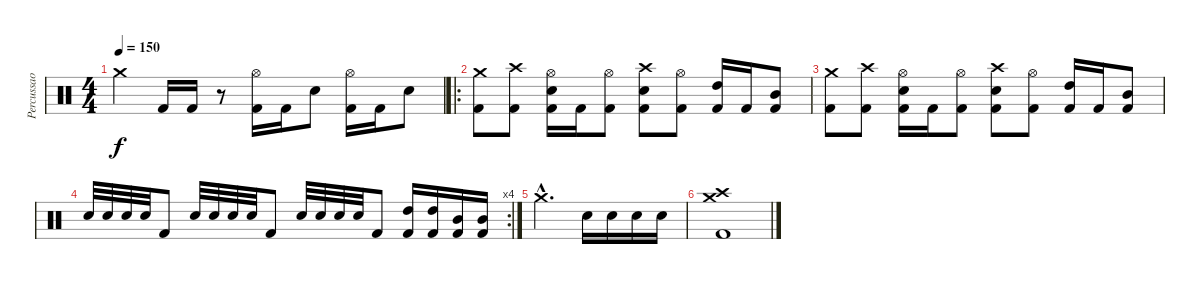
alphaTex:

\track ("Percussao" "Percussao") {instrument percussion}
\staff {score}
\articulation defaults
\ts (4 4)
\tempo 150
\clef neutral
\ks c "Crash medium (hit)".4{dy f} "Kick (hit) 2".16 "Kick (hit) 2".16
r.8 ("Hi-Hat (open)" "Kick (hit) 2").16 "Kick (hit) 2".16 "Electric Snare (hit)".8 ("Hi-Hat (open)" "Kick (hit) 2").16 "Kick (hit) 2".16 "Electric Snare (hit)".8 |
\ro
("Crash medium (hit)" "Kick (hit) 2").8 ("Crash high (hit)" "Kick (hit) 2").8 ("Hi-Hat (open)" "Electric Snare (hit)" "Kick (hit) 2").16 "Kick (hit) 2".16 ("Hi-Hat (open)" "Kick (hit) 2").8 ("Crash high (hit)" "Electric Snare (hit)" "Kick (hit) 2").8 ("Hi-Hat (open)" "Kick (hit) 2").8 ("High Tom (hit)" "Kick (hit) 2").16 "Kick (hit) 2".16 ("Mid Tom (hit)" "Kick (hit) 2").8 |
("Crash medium (hit)" "Kick (hit) 2").8 ("Crash high (hit)" "Kick (hit) 2").8 ("Hi-Hat (open)" "Electric Snare (hit)" "Kick (hit) 2").16 "Kick (hit) 2".16 ("Hi-Hat (open)" "Kick (hit) 2").8 ("Crash high (hit)" "Electric Snare (hit)" "Kick (hit) 2").8 ("Hi-Hat (open)" "Kick (hit) 2").8 ("High Tom (hit)" "Kick (hit) 2").16 "Kick (hit) 2".16 ("Mid Tom (hit)" "Kick (hit) 2").8 |
\rc 4 "Electric Snare (hit)".32 "Electric Snare (hit)".32 "Electric Snare (hit)".32 "Electric Snare (hit)".32 "Kick (hit) 2".8 "Electric Snare (hit)".32 "Electric Snare (hit)".32 "Electric Snare (hit)".32 "Electric Snare (hit)".32 "Kick (hit) 2".8 "Electric Snare (hit)".32 "Electric Snare (hit)".32 "Electric Snare (hit)".32 "Electric Snare (hit)".32 "Kick (hit) 2".8
("High Tom (hit)" "Kick (hit) 2").16 ("High Tom (hit)" "Kick (hit) 2").16 ("Mid Tom (hit)" "Kick (hit) 2").16 ("Mid Tom (hit)" "Kick (hit) 2").16 |
"Crash medium (hit)"{hac}.2{d} "Electric Snare (hit)".16 "Electric Snare (hit)".16 "Electric Snare (hit)".16 "Electric Snare (hit)".16 |
("Crash medium (hit)" "Crash high (hit)" "Kick (hit) 2").1
